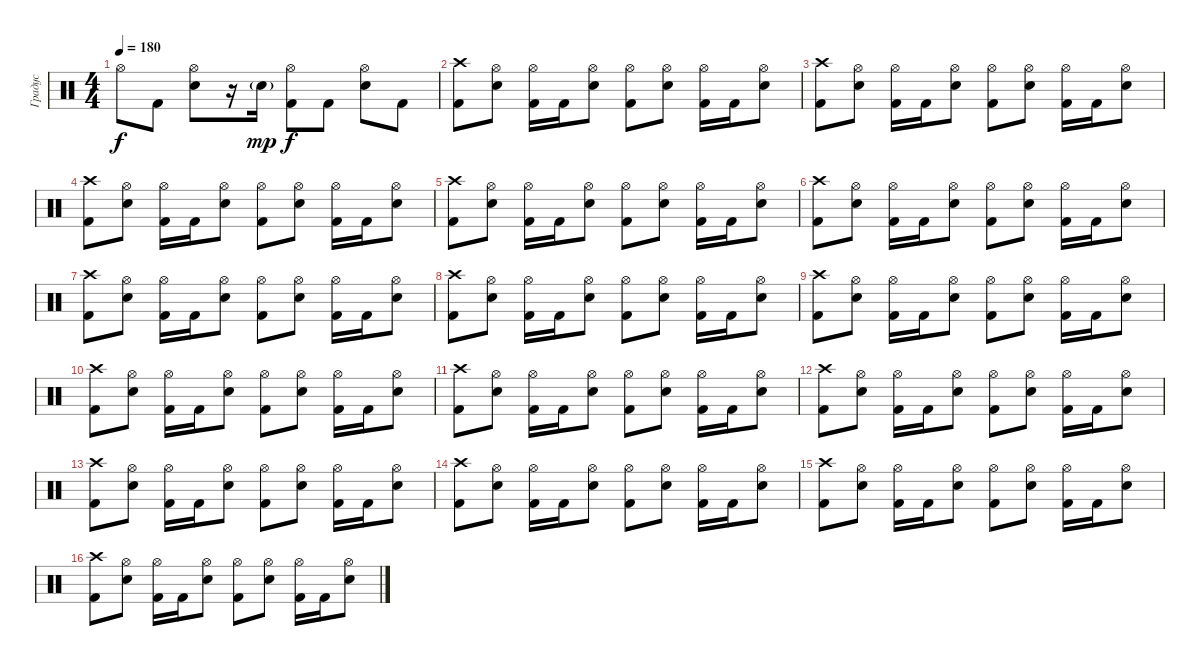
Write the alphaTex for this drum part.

\track ("Градус" "Градус") {instrument percussion}
\staff {score}
\articulation defaults
\ts (4 4)
\tempo 180
\clef neutral
\ks c "Hi-Hat (open)".8{dy f} "Kick (hit) 2".8
("Electric Snare (hit)" "Hi-Hat (open)").8 r.16 "Electric Snare (hit)"{g}.16{dy mp} ("Kick (hit) 2" "Hi-Hat (open)").8{dy f} "Kick (hit) 2".8 ("Electric Snare (hit)" "Hi-Hat (open)").8 "Kick (hit) 2".8 |
("Kick (hit) 2" "Crash high (hit)").8 ("Electric Snare (hit)" "Hi-Hat (open)").8 ("Kick (hit) 2" "Hi-Hat (open)").16 "Kick (hit) 2".16 ("Electric Snare (hit)" "Hi-Hat (open)").8 ("Kick (hit) 2" "Hi-Hat (open)").8 ("Electric Snare (hit)" "Hi-Hat (open)").8 ("Kick (hit) 2" "Hi-Hat (open)").16 "Kick (hit) 2".16 ("Electric Snare (hit)" "Hi-Hat (open)").8 |
("Kick (hit) 2" "Crash high (hit)").8 ("Electric Snare (hit)" "Hi-Hat (open)").8 ("Kick (hit) 2" "Hi-Hat (open)").16 "Kick (hit) 2".16 ("Electric Snare (hit)" "Hi-Hat (open)").8 ("Kick (hit) 2" "Hi-Hat (open)").8 ("Electric Snare (hit)" "Hi-Hat (open)").8 ("Kick (hit) 2" "Hi-Hat (open)").16 "Kick (hit) 2".16 ("Electric Snare (hit)" "Hi-Hat (open)").8 |
("Kick (hit) 2" "Crash high (hit)").8 ("Electric Snare (hit)" "Hi-Hat (open)").8 ("Kick (hit) 2" "Hi-Hat (open)").16 "Kick (hit) 2".16 ("Electric Snare (hit)" "Hi-Hat (open)").8 ("Kick (hit) 2" "Hi-Hat (open)").8 ("Electric Snare (hit)" "Hi-Hat (open)").8 ("Kick (hit) 2" "Hi-Hat (open)").16 "Kick (hit) 2".16 ("Electric Snare (hit)" "Hi-Hat (open)").8 |
("Kick (hit) 2" "Crash high (hit)").8 ("Electric Snare (hit)" "Hi-Hat (open)").8 ("Kick (hit) 2" "Hi-Hat (open)").16 "Kick (hit) 2".16 ("Electric Snare (hit)" "Hi-Hat (open)").8 ("Kick (hit) 2" "Hi-Hat (open)").8 ("Electric Snare (hit)" "Hi-Hat (open)").8 ("Kick (hit) 2" "Hi-Hat (open)").16 "Kick (hit) 2".16 ("Electric Snare (hit)" "Hi-Hat (open)").8 |
("Kick (hit) 2" "Crash high (hit)").8 ("Electric Snare (hit)" "Hi-Hat (open)").8 ("Kick (hit) 2" "Hi-Hat (open)").16 "Kick (hit) 2".16 ("Electric Snare (hit)" "Hi-Hat (open)").8 ("Kick (hit) 2" "Hi-Hat (open)").8 ("Electric Snare (hit)" "Hi-Hat (open)").8 ("Kick (hit) 2" "Hi-Hat (open)").16 "Kick (hit) 2".16 ("Electric Snare (hit)" "Hi-Hat (open)").8 |
("Kick (hit) 2" "Crash high (hit)").8 ("Electric Snare (hit)" "Hi-Hat (open)").8 ("Kick (hit) 2" "Hi-Hat (open)").16 "Kick (hit) 2".16 ("Electric Snare (hit)" "Hi-Hat (open)").8 ("Kick (hit) 2" "Hi-Hat (open)").8 ("Electric Snare (hit)" "Hi-Hat (open)").8 ("Kick (hit) 2" "Hi-Hat (open)").16 "Kick (hit) 2".16 ("Electric Snare (hit)" "Hi-Hat (open)").8 |
("Kick (hit) 2" "Crash high (hit)").8 ("Electric Snare (hit)" "Hi-Hat (open)").8 ("Kick (hit) 2" "Hi-Hat (open)").16 "Kick (hit) 2".16 ("Electric Snare (hit)" "Hi-Hat (open)").8 ("Kick (hit) 2" "Hi-Hat (open)").8 ("Electric Snare (hit)" "Hi-Hat (open)").8 ("Kick (hit) 2" "Hi-Hat (open)").16 "Kick (hit) 2".16 ("Electric Snare (hit)" "Hi-Hat (open)").8 |
("Kick (hit) 2" "Crash high (hit)").8 ("Electric Snare (hit)" "Hi-Hat (open)").8 ("Kick (hit) 2" "Hi-Hat (open)").16 "Kick (hit) 2".16 ("Electric Snare (hit)" "Hi-Hat (open)").8 ("Kick (hit) 2" "Hi-Hat (open)").8 ("Electric Snare (hit)" "Hi-Hat (open)").8 ("Kick (hit) 2" "Hi-Hat (open)").16 "Kick (hit) 2".16 ("Electric Snare (hit)" "Hi-Hat (open)").8 |
("Kick (hit) 2" "Crash high (hit)").8 ("Electric Snare (hit)" "Hi-Hat (open)").8 ("Kick (hit) 2" "Hi-Hat (open)").16 "Kick (hit) 2".16 ("Electric Snare (hit)" "Hi-Hat (open)").8 ("Kick (hit) 2" "Hi-Hat (open)").8 ("Electric Snare (hit)" "Hi-Hat (open)").8 ("Kick (hit) 2" "Hi-Hat (open)").16 "Kick (hit) 2".16 ("Electric Snare (hit)" "Hi-Hat (open)").8 |
("Kick (hit) 2" "Crash high (hit)").8 ("Electric Snare (hit)" "Hi-Hat (open)").8 ("Kick (hit) 2" "Hi-Hat (open)").16 "Kick (hit) 2".16 ("Electric Snare (hit)" "Hi-Hat (open)").8 ("Kick (hit) 2" "Hi-Hat (open)").8 ("Electric Snare (hit)" "Hi-Hat (open)").8 ("Kick (hit) 2" "Hi-Hat (open)").16 "Kick (hit) 2".16 ("Electric Snare (hit)" "Hi-Hat (open)").8 |
("Kick (hit) 2" "Crash high (hit)").8 ("Electric Snare (hit)" "Hi-Hat (open)").8 ("Kick (hit) 2" "Hi-Hat (open)").16 "Kick (hit) 2".16 ("Electric Snare (hit)" "Hi-Hat (open)").8 ("Kick (hit) 2" "Hi-Hat (open)").8 ("Electric Snare (hit)" "Hi-Hat (open)").8 ("Kick (hit) 2" "Hi-Hat (open)").16 "Kick (hit) 2".16 ("Electric Snare (hit)" "Hi-Hat (open)").8 |
("Kick (hit) 2" "Crash high (hit)").8 ("Electric Snare (hit)" "Hi-Hat (open)").8 ("Kick (hit) 2" "Hi-Hat (open)").16 "Kick (hit) 2".16 ("Electric Snare (hit)" "Hi-Hat (open)").8 ("Kick (hit) 2" "Hi-Hat (open)").8 ("Electric Snare (hit)" "Hi-Hat (open)").8 ("Kick (hit) 2" "Hi-Hat (open)").16 "Kick (hit) 2".16 ("Electric Snare (hit)" "Hi-Hat (open)").8 |
("Kick (hit) 2" "Crash high (hit)").8 ("Electric Snare (hit)" "Hi-Hat (open)").8 ("Kick (hit) 2" "Hi-Hat (open)").16 "Kick (hit) 2".16 ("Electric Snare (hit)" "Hi-Hat (open)").8 ("Kick (hit) 2" "Hi-Hat (open)").8 ("Electric Snare (hit)" "Hi-Hat (open)").8 ("Kick (hit) 2" "Hi-Hat (open)").16 "Kick (hit) 2".16 ("Electric Snare (hit)" "Hi-Hat (open)").8 |
("Kick (hit) 2" "Crash high (hit)").8 ("Electric Snare (hit)" "Hi-Hat (open)").8 ("Kick (hit) 2" "Hi-Hat (open)").16 "Kick (hit) 2".16 ("Electric Snare (hit)" "Hi-Hat (open)").8 ("Kick (hit) 2" "Hi-Hat (open)").8 ("Electric Snare (hit)" "Hi-Hat (open)").8 ("Kick (hit) 2" "Hi-Hat (open)").16 "Kick (hit) 2".16 ("Electric Snare (hit)" "Hi-Hat (open)").8 |
("Kick (hit) 2" "Crash high (hit)").8 ("Electric Snare (hit)" "Hi-Hat (open)").8 ("Kick (hit) 2" "Hi-Hat (open)").16 "Kick (hit) 2".16 ("Electric Snare (hit)" "Hi-Hat (open)").8 ("Kick (hit) 2" "Hi-Hat (open)").8 ("Electric Snare (hit)" "Hi-Hat (open)").8 ("Kick (hit) 2" "Hi-Hat (open)").16 "Kick (hit) 2".16 ("Electric Snare (hit)" "Hi-Hat (open)").8
